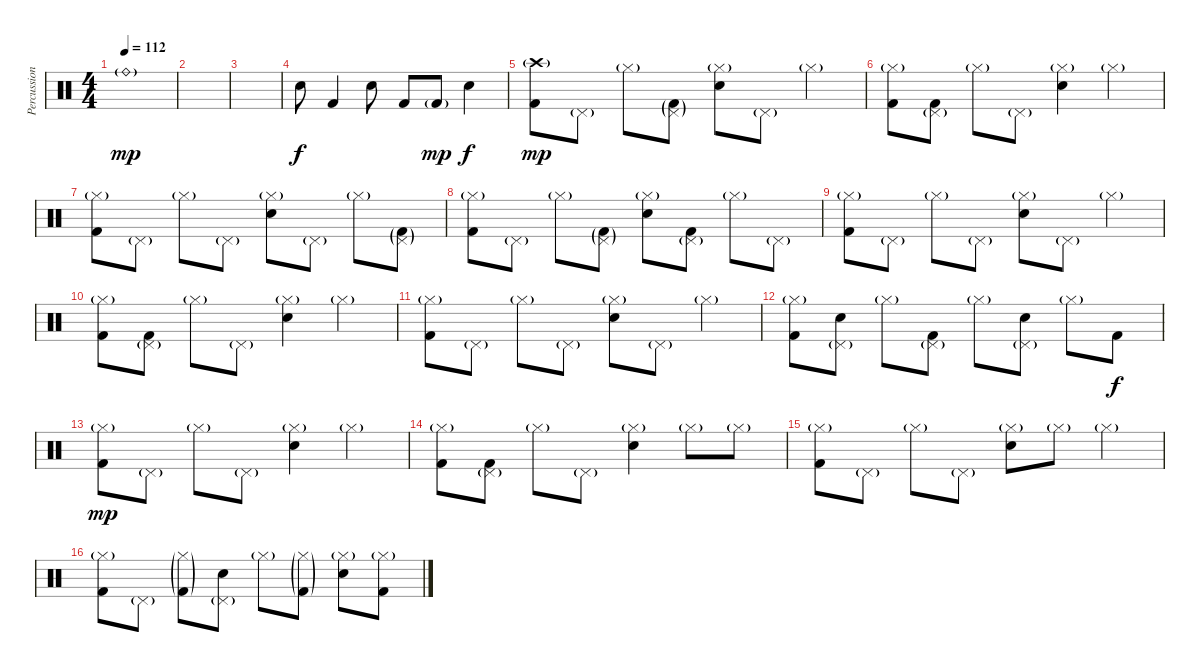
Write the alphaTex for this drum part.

\track ("Percussion" "Percussion") {instrument percussion}
\staff {score}
\articulation defaults
\ts (4 4)
\tempo 112
\clef neutral
\ks c "Ride (bell)"{g}.1{dy mp}
|
|
|
"Electric Snare (hit)".8{dy f} "Kick (hit) 2".4 "Electric Snare (hit)".8 "Kick (hit) 2".8 "Kick (hit) 2"{g}.8{dy mp} "Electric Snare (hit)".4{dy f} |
("Crash high (hit)"{g} "Kick (hit) 2").8{dy mp} "Pedal Hi-Hat (hit)"{g}.8 "Hi-Hat (closed)"{g}.8 ("Pedal Hi-Hat (hit)"{g} "Kick (hit) 2"{g}).8 ("Hi-Hat (closed)"{g} "Snare (hit) 2").8 "Pedal Hi-Hat (hit)"{g}.8 "Hi-Hat (closed)"{g}.4 |
("Hi-Hat (closed)"{g} "Kick (hit) 2").8 ("Pedal Hi-Hat (hit)"{g} "Kick (hit) 2").8 "Hi-Hat (closed)"{g}.8 "Pedal Hi-Hat (hit)"{g}.8 ("Hi-Hat (closed)"{g} "Electric Snare (hit)").4 "Hi-Hat (closed)"{g}.4 |
("Hi-Hat (closed)"{g} "Kick (hit) 2").8 "Pedal Hi-Hat (hit)"{g}.8 "Hi-Hat (closed)"{g}.8 "Pedal Hi-Hat (hit)"{g}.8 ("Hi-Hat (closed)"{g} "Electric Snare (hit)").8 "Pedal Hi-Hat (hit)"{g}.8 "Hi-Hat (closed)"{g}.8 ("Pedal Hi-Hat (hit)"{g} "Kick (hit) 2"{g}).8 |
("Hi-Hat (closed)"{g} "Kick (hit) 2").8 "Pedal Hi-Hat (hit)"{g}.8 "Hi-Hat (closed)"{g}.8 ("Pedal Hi-Hat (hit)"{g} "Kick (hit) 2"{g}).8 ("Hi-Hat (closed)"{g} "Electric Snare (hit)").8 ("Pedal Hi-Hat (hit)"{g} "Kick (hit) 2").8 "Hi-Hat (closed)"{g}.8 "Pedal Hi-Hat (hit)"{g}.8 |
("Hi-Hat (closed)"{g} "Kick (hit) 2").8 "Pedal Hi-Hat (hit)"{g}.8 "Hi-Hat (closed)"{g}.8 "Pedal Hi-Hat (hit)"{g}.8 ("Hi-Hat (closed)"{g} "Electric Snare (hit)").8 "Pedal Hi-Hat (hit)"{g}.8 "Hi-Hat (closed)"{g}.4 |
("Hi-Hat (closed)"{g} "Kick (hit) 2").8 ("Pedal Hi-Hat (hit)"{g} "Kick (hit) 2").8 "Hi-Hat (closed)"{g}.8 "Pedal Hi-Hat (hit)"{g}.8 ("Hi-Hat (closed)"{g} "Electric Snare (hit)").4 "Hi-Hat (closed)"{g}.4 |
("Hi-Hat (closed)"{g} "Kick (hit) 2").8 "Pedal Hi-Hat (hit)"{g}.8 "Hi-Hat (closed)"{g}.8 "Pedal Hi-Hat (hit)"{g}.8 ("Hi-Hat (closed)"{g} "Electric Snare (hit)").8 "Pedal Hi-Hat (hit)"{g}.8 "Hi-Hat (closed)"{g}.4 |
("Hi-Hat (closed)"{g} "Kick (hit) 2").8 ("Pedal Hi-Hat (hit)"{g} "Electric Snare (hit)").8 "Hi-Hat (closed)"{g}.8 ("Pedal Hi-Hat (hit)"{g} "Kick (hit) 2").8 "Hi-Hat (closed)"{g}.8 ("Pedal Hi-Hat (hit)"{g} "Electric Snare (hit)").8 "Hi-Hat (closed)"{g}.8 "Kick (hit) 2".8{dy f} |
("Hi-Hat (closed)"{g} "Kick (hit) 2").8{dy mp} "Pedal Hi-Hat (hit)"{g}.8 "Hi-Hat (closed)"{g}.8 "Pedal Hi-Hat (hit)"{g}.8 ("Hi-Hat (closed)"{g} "Electric Snare (hit)").4 "Hi-Hat (closed)"{g}.4 |
("Hi-Hat (closed)"{g} "Kick (hit) 2").8 ("Pedal Hi-Hat (hit)"{g} "Kick (hit) 2").8 "Hi-Hat (closed)"{g}.8 "Pedal Hi-Hat (hit)"{g}.8 ("Hi-Hat (closed)"{g} "Electric Snare (hit)").4 "Hi-Hat (closed)"{g}.8 "Hi-Hat (closed)"{g}.8 |
("Hi-Hat (closed)"{g} "Kick (hit) 2").8 "Pedal Hi-Hat (hit)"{g}.8 "Hi-Hat (closed)"{g}.8 "Pedal Hi-Hat (hit)"{g}.8 ("Hi-Hat (closed)"{g} "Electric Snare (hit)").8 "Hi-Hat (closed)"{g}.8 "Hi-Hat (closed)"{g}.4 |
("Hi-Hat (closed)"{g} "Kick (hit) 2").8 "Pedal Hi-Hat (hit)"{g}.8 ("Hi-Hat (closed)"{g} "Kick (hit) 2"{g}).8 ("Pedal Hi-Hat (hit)"{g} "Electric Snare (hit)").8 "Hi-Hat (closed)"{g}.8 ("Hi-Hat (closed)"{g} "Kick (hit) 2"{g}).8 ("Hi-Hat (closed)"{g} "Electric Snare (hit)").8 ("Hi-Hat (closed)"{g} "Kick (hit) 2").8
